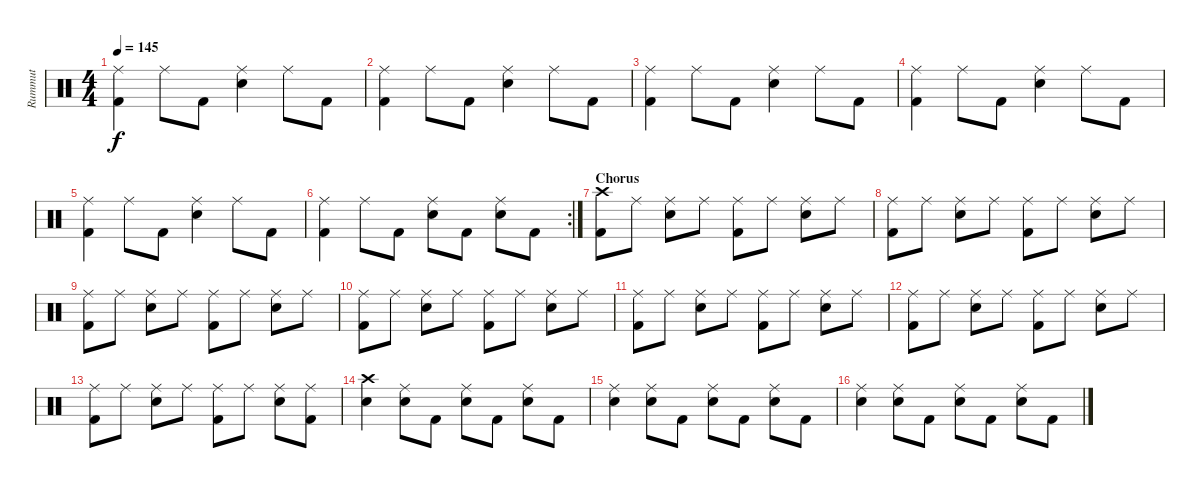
\track ("Rummut" "Rummut") {instrument percussion}
\staff {score}
\articulation defaults
\ts (4 4)
\tempo 145
\clef neutral
\ks c
("Ride (middle)" "Kick (hit) 2").4{dy f} "Ride (middle)".8 "Kick (hit) 2".8 ("Ride (middle)" "Snare (hit) 2").4 "Ride (middle)".8 "Kick (hit) 2".8 |
("Ride (middle)" "Kick (hit) 2").4 "Ride (middle)".8 "Kick (hit) 2".8 ("Ride (middle)" "Snare (hit) 2").4 "Ride (middle)".8 "Kick (hit) 2".8 |
("Ride (middle)" "Kick (hit) 2").4 "Ride (middle)".8 "Kick (hit) 2".8 ("Ride (middle)" "Snare (hit) 2").4 "Ride (middle)".8 "Kick (hit) 2".8 |
("Ride (middle)" "Kick (hit) 2").4 "Ride (middle)".8 "Kick (hit) 2".8 ("Ride (middle)" "Snare (hit) 2").4 "Ride (middle)".8 "Kick (hit) 2".8 |
("Ride (middle)" "Kick (hit) 2").4 "Ride (middle)".8 "Kick (hit) 2".8 ("Ride (middle)" "Snare (hit) 2").4 "Ride (middle)".8 "Kick (hit) 2".8 |
\rc 2
("Ride (middle)" "Kick (hit) 2").4 "Ride (middle)".8 "Kick (hit) 2".8 ("Ride (middle)" "Snare (hit) 2").8 "Kick (hit) 2".8 ("Ride (middle)" "Snare (hit) 2").8 "Kick (hit) 2".8 |
\section ("" "Chorus")
("Crash high (hit)" "Kick (hit) 2").8 "Ride (middle)".8 ("Ride (middle)" "Snare (hit) 2").8 "Ride (middle)".8 ("Ride (middle)" "Kick (hit) 2").8 "Ride (middle)".8 ("Ride (middle)" "Snare (hit) 2").8 "Ride (middle)".8 |
("Ride (middle)" "Kick (hit) 2").8 "Ride (middle)".8 ("Ride (middle)" "Snare (hit) 2").8 "Ride (middle)".8 ("Ride (middle)" "Kick (hit) 2").8 "Ride (middle)".8 ("Ride (middle)" "Snare (hit) 2").8 "Ride (middle)".8 |
("Ride (middle)" "Kick (hit) 2").8 "Ride (middle)".8 ("Ride (middle)" "Snare (hit) 2").8 "Ride (middle)".8 ("Ride (middle)" "Kick (hit) 2").8 "Ride (middle)".8 ("Ride (middle)" "Snare (hit) 2").8 "Ride (middle)".8 |
("Ride (middle)" "Kick (hit) 2").8 "Ride (middle)".8 ("Ride (middle)" "Snare (hit) 2").8 "Ride (middle)".8 ("Ride (middle)" "Kick (hit) 2").8 "Ride (middle)".8 ("Ride (middle)" "Snare (hit) 2").8 "Ride (middle)".8 |
("Ride (middle)" "Kick (hit) 2").8 "Ride (middle)".8 ("Ride (middle)" "Snare (hit) 2").8 "Ride (middle)".8 ("Ride (middle)" "Kick (hit) 2").8 "Ride (middle)".8 ("Ride (middle)" "Snare (hit) 2").8 "Ride (middle)".8 |
("Ride (middle)" "Kick (hit) 2").8 "Ride (middle)".8 ("Ride (middle)" "Snare (hit) 2").8 "Ride (middle)".8 ("Ride (middle)" "Kick (hit) 2").8 "Ride (middle)".8 ("Ride (middle)" "Snare (hit) 2").8 "Ride (middle)".8 |
("Ride (middle)" "Kick (hit) 2").8 "Ride (middle)".8 ("Ride (middle)" "Snare (hit) 2").8 "Ride (middle)".8 ("Ride (middle)" "Kick (hit) 2").8 "Ride (middle)".8 ("Ride (middle)" "Snare (hit) 2").8 ("Ride (middle)" "Kick (hit) 2").8 |
("Crash high (hit)" "Snare (hit) 2").4 ("Ride (middle)" "Snare (hit) 2").8 "Kick (hit) 2".8 ("Ride (middle)" "Snare (hit) 2").8 "Kick (hit) 2".8 ("Ride (middle)" "Snare (hit) 2").8 "Kick (hit) 2".8 |
("Ride (middle)" "Snare (hit) 2").4 ("Ride (middle)" "Snare (hit) 2").8 "Kick (hit) 2".8 ("Ride (middle)" "Snare (hit) 2").8 "Kick (hit) 2".8 ("Ride (middle)" "Snare (hit) 2").8 "Kick (hit) 2".8 |
("Ride (middle)" "Snare (hit) 2").4 ("Ride (middle)" "Snare (hit) 2").8 "Kick (hit) 2".8 ("Ride (middle)" "Snare (hit) 2").8 "Kick (hit) 2".8 ("Ride (middle)" "Snare (hit) 2").8 "Kick (hit) 2".8
